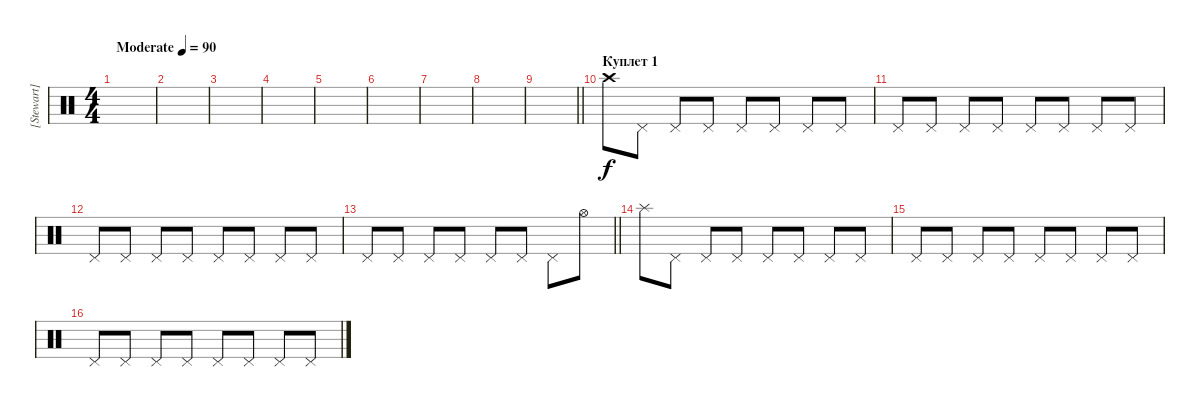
\track ("[Stewart] (hats)" "[Stewart] ") {instrument percussion}
\staff {score}
\articulation defaults
\ts (4 4)
\tempo (90 "Moderate")
\clef neutral
\ks c
|
|
|
|
|
|
|
|
\barLineRight lightlight
|
\section ("" "Куплет 1")
"Crash high (hit)".8 "Pedal Hi-Hat (hit)".8 "Pedal Hi-Hat (hit)".8 "Pedal Hi-Hat (hit)".8 "Pedal Hi-Hat (hit)".8 "Pedal Hi-Hat (hit)".8 "Pedal Hi-Hat (hit)".8 "Pedal Hi-Hat (hit)".8 |
"Pedal Hi-Hat (hit)".8 "Pedal Hi-Hat (hit)".8 "Pedal Hi-Hat (hit)".8 "Pedal Hi-Hat (hit)".8 "Pedal Hi-Hat (hit)".8 "Pedal Hi-Hat (hit)".8 "Pedal Hi-Hat (hit)".8 "Pedal Hi-Hat (hit)".8 |
"Pedal Hi-Hat (hit)".8 "Pedal Hi-Hat (hit)".8 "Pedal Hi-Hat (hit)".8 "Pedal Hi-Hat (hit)".8 "Pedal Hi-Hat (hit)".8 "Pedal Hi-Hat (hit)".8 "Pedal Hi-Hat (hit)".8 "Pedal Hi-Hat (hit)".8 |
\barLineRight lightlight "Pedal Hi-Hat (hit)".8 "Pedal Hi-Hat (hit)".8 "Pedal Hi-Hat (hit)".8 "Pedal Hi-Hat (hit)".8 "Pedal Hi-Hat (hit)".8 "Pedal Hi-Hat (hit)".8 "Pedal Hi-Hat (hit)".8 "Hi-Hat (open)".8
|
"Splash (hit)".8 "Pedal Hi-Hat (hit)".8 "Pedal Hi-Hat (hit)".8 "Pedal Hi-Hat (hit)".8 "Pedal Hi-Hat (hit)".8 "Pedal Hi-Hat (hit)".8 "Pedal Hi-Hat (hit)".8 "Pedal Hi-Hat (hit)".8 |
"Pedal Hi-Hat (hit)".8 "Pedal Hi-Hat (hit)".8 "Pedal Hi-Hat (hit)".8 "Pedal Hi-Hat (hit)".8 "Pedal Hi-Hat (hit)".8 "Pedal Hi-Hat (hit)".8 "Pedal Hi-Hat (hit)".8 "Pedal Hi-Hat (hit)".8 |
"Pedal Hi-Hat (hit)".8 "Pedal Hi-Hat (hit)".8 "Pedal Hi-Hat (hit)".8 "Pedal Hi-Hat (hit)".8 "Pedal Hi-Hat (hit)".8 "Pedal Hi-Hat (hit)".8 "Pedal Hi-Hat (hit)".8 "Pedal Hi-Hat (hit)".8
